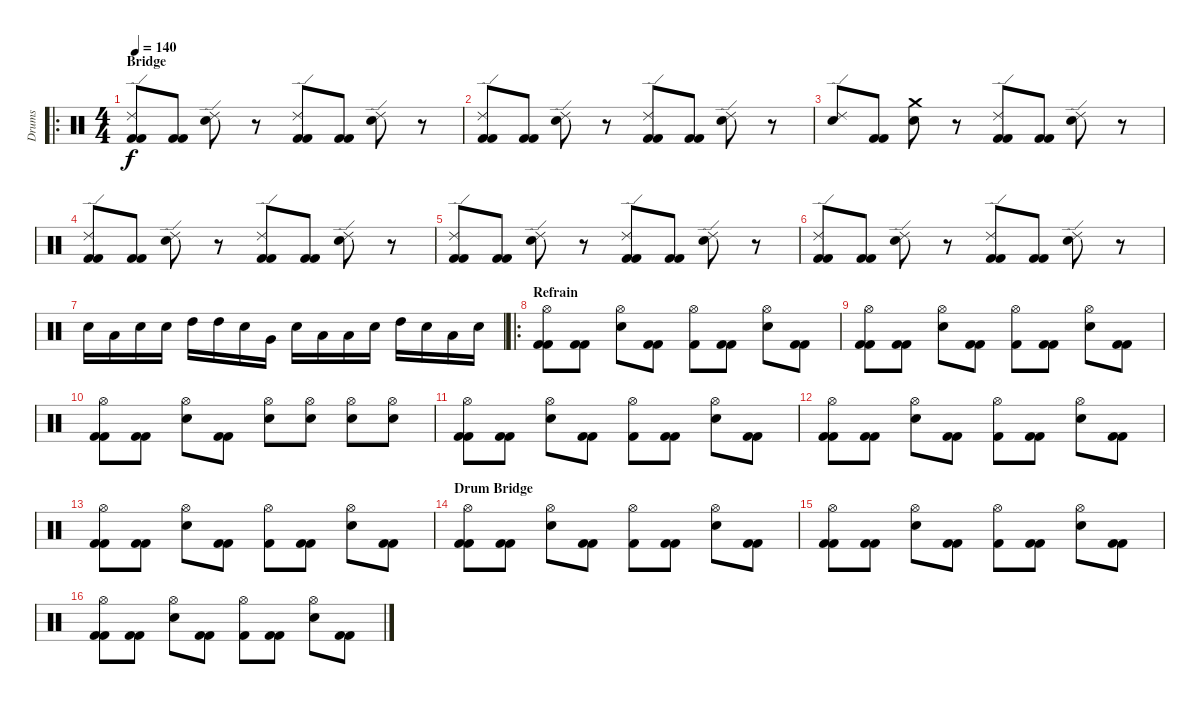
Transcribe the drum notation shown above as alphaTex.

\track ("Drums" "Drums") {instrument percussion}
\staff {score}
\articulation defaults
\ro
\ts (4 4)
\section ("" "Bridge ")
\tempo 140
\clef neutral
\ks c
("Ride (edge) 2" "Kick (hit) 2" "Kick (hit) 2").8{dy f} ("Kick (hit) 2" "Kick (hit) 2").8 ("Electric Snare (hit)" "Ride (edge) 2").8 r.8 ("Ride (edge) 2" "Kick (hit) 2" "Kick (hit) 2").8 ("Kick (hit) 2" "Kick (hit) 2").8 ("Electric Snare (hit)" "Ride (edge) 2").8 r.8 |
("Ride (edge) 2" "Kick (hit) 2" "Kick (hit) 2").8 ("Kick (hit) 2" "Kick (hit) 2").8 ("Electric Snare (hit)" "Ride (edge) 2").8 r.8 ("Ride (edge) 2" "Kick (hit) 2" "Kick (hit) 2").8 ("Kick (hit) 2" "Kick (hit) 2").8 ("Electric Snare (hit)" "Ride (edge) 2").8 r.8 |
("Ride (edge) 2" "Electric Snare (hit)").8 ("Kick (hit) 2" "Kick (hit) 2").8 ("Electric Snare (hit)" "Crash medium (hit)").8 r.8 ("Ride (edge) 2" "Kick (hit) 2" "Kick (hit) 2").8 ("Kick (hit) 2" "Kick (hit) 2").8 ("Ride (edge) 2" "Electric Snare (hit)").8 r.8 |
("Ride (edge) 2" "Kick (hit) 2" "Kick (hit) 2").8 ("Kick (hit) 2" "Kick (hit) 2").8 ("Electric Snare (hit)" "Ride (edge) 2").8 r.8 ("Ride (edge) 2" "Kick (hit) 2" "Kick (hit) 2").8 ("Kick (hit) 2" "Kick (hit) 2").8 ("Electric Snare (hit)" "Ride (edge) 2").8 r.8 |
("Ride (edge) 2" "Kick (hit) 2" "Kick (hit) 2").8 ("Kick (hit) 2" "Kick (hit) 2").8 ("Electric Snare (hit)" "Ride (edge) 2").8 r.8 ("Ride (edge) 2" "Kick (hit) 2" "Kick (hit) 2").8 ("Kick (hit) 2" "Kick (hit) 2").8 ("Electric Snare (hit)" "Ride (edge) 2").8 r.8 |
("Ride (edge) 2" "Kick (hit) 2" "Kick (hit) 2").8 ("Kick (hit) 2" "Kick (hit) 2").8 ("Electric Snare (hit)" "Ride (edge) 2").8 r.8 ("Ride (edge) 2" "Kick (hit) 2" "Kick (hit) 2").8 ("Kick (hit) 2" "Kick (hit) 2").8 ("Electric Snare (hit)" "Ride (edge) 2").8 r.8 |
"Electric Snare (hit)".16 "Low Tom (hit)".16 "Electric Snare (hit)".16 "Electric Snare (hit)".16 "High Tom (hit)".16 "High Tom (hit)".16 "Electric Snare (hit)".16 "Very Low Tom (hit)".16 "Electric Snare (hit)".16 "Low Floor Tom (hit)".16 "Low Floor Tom (hit)".16 "Electric Snare (hit)".16 "High Tom (hit)".16 "Electric Snare (hit)".16 "Low Tom (hit)".16 "Electric Snare (hit)".16 |
\ro
\section ("" "Refrain ")
("Hi-Hat (open)" "Kick (hit) 2" "Kick (hit) 2").8 ("Kick (hit) 2" "Kick (hit) 2").8 ("Electric Snare (hit)" "Hi-Hat (open)").8 ("Kick (hit) 2" "Kick (hit) 2").8 ("Hi-Hat (open)" "Kick (hit) 2").8 ("Kick (hit) 2" "Kick (hit) 2").8 ("Electric Snare (hit)" "Hi-Hat (open)").8 ("Kick (hit) 2" "Kick (hit) 2").8 |
("Hi-Hat (open)" "Kick (hit) 2" "Kick (hit) 2").8 ("Kick (hit) 2" "Kick (hit) 2").8 ("Electric Snare (hit)" "Hi-Hat (open)").8 ("Kick (hit) 2" "Kick (hit) 2").8 ("Hi-Hat (open)" "Kick (hit) 2").8 ("Kick (hit) 2" "Kick (hit) 2").8 ("Electric Snare (hit)" "Hi-Hat (open)").8 ("Kick (hit) 2" "Kick (hit) 2").8 |
("Hi-Hat (open)" "Kick (hit) 2" "Kick (hit) 2").8 ("Kick (hit) 2" "Kick (hit) 2").8 ("Electric Snare (hit)" "Hi-Hat (open)").8 ("Kick (hit) 2" "Kick (hit) 2").8 ("Hi-Hat (open)" "Electric Snare (hit)").8 ("Hi-Hat (open)" "Electric Snare (hit)").8 ("Electric Snare (hit)" "Hi-Hat (open)").8 ("Electric Snare (hit)" "Hi-Hat (open)").8 |
("Hi-Hat (open)" "Kick (hit) 2" "Kick (hit) 2").8 ("Kick (hit) 2" "Kick (hit) 2").8 ("Electric Snare (hit)" "Hi-Hat (open)").8 ("Kick (hit) 2" "Kick (hit) 2").8 ("Hi-Hat (open)" "Kick (hit) 2").8 ("Kick (hit) 2" "Kick (hit) 2").8 ("Electric Snare (hit)" "Hi-Hat (open)").8 ("Kick (hit) 2" "Kick (hit) 2").8 |
("Hi-Hat (open)" "Kick (hit) 2" "Kick (hit) 2").8 ("Kick (hit) 2" "Kick (hit) 2").8 ("Electric Snare (hit)" "Hi-Hat (open)").8 ("Kick (hit) 2" "Kick (hit) 2").8 ("Hi-Hat (open)" "Kick (hit) 2").8 ("Kick (hit) 2" "Kick (hit) 2").8 ("Electric Snare (hit)" "Hi-Hat (open)").8 ("Kick (hit) 2" "Kick (hit) 2").8 |
("Hi-Hat (open)" "Kick (hit) 2" "Kick (hit) 2").8 ("Kick (hit) 2" "Kick (hit) 2").8 ("Electric Snare (hit)" "Hi-Hat (open)").8 ("Kick (hit) 2" "Kick (hit) 2").8 ("Hi-Hat (open)" "Kick (hit) 2").8 ("Kick (hit) 2" "Kick (hit) 2").8 ("Electric Snare (hit)" "Hi-Hat (open)").8 ("Kick (hit) 2" "Kick (hit) 2").8 |
\section ("" "Drum Bridge")
("Hi-Hat (open)" "Kick (hit) 2" "Kick (hit) 2").8 ("Kick (hit) 2" "Kick (hit) 2").8 ("Electric Snare (hit)" "Hi-Hat (open)").8 ("Kick (hit) 2" "Kick (hit) 2").8 ("Hi-Hat (open)" "Kick (hit) 2").8 ("Kick (hit) 2" "Kick (hit) 2").8 ("Electric Snare (hit)" "Hi-Hat (open)").8 ("Kick (hit) 2" "Kick (hit) 2").8 |
("Hi-Hat (open)" "Kick (hit) 2" "Kick (hit) 2").8 ("Kick (hit) 2" "Kick (hit) 2").8 ("Electric Snare (hit)" "Hi-Hat (open)").8 ("Kick (hit) 2" "Kick (hit) 2").8 ("Hi-Hat (open)" "Kick (hit) 2").8 ("Kick (hit) 2" "Kick (hit) 2").8 ("Electric Snare (hit)" "Hi-Hat (open)").8 ("Kick (hit) 2" "Kick (hit) 2").8 |
("Hi-Hat (open)" "Kick (hit) 2" "Kick (hit) 2").8 ("Kick (hit) 2" "Kick (hit) 2").8 ("Electric Snare (hit)" "Hi-Hat (open)").8 ("Kick (hit) 2" "Kick (hit) 2").8 ("Hi-Hat (open)" "Kick (hit) 2").8 ("Kick (hit) 2" "Kick (hit) 2").8 ("Electric Snare (hit)" "Hi-Hat (open)").8 ("Kick (hit) 2" "Kick (hit) 2").8
